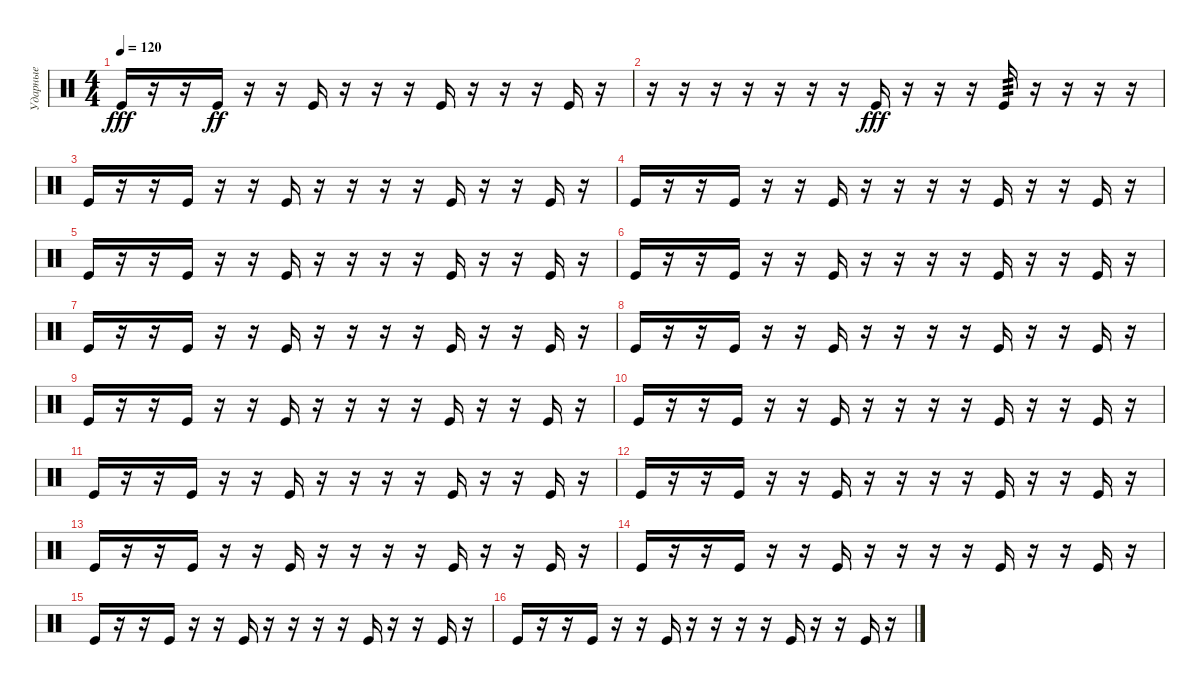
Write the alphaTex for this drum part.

\track ("Ударные" "Ударные") {instrument percussion}
\staff {score}
\articulation defaults
\ts (4 4)
\tempo 120
\clef neutral
\ks c "Kick (hit)".16{dy fff}
r.16 r.16 "Kick (hit)".16{dy ff} r.16 r.16 "Kick (hit)".16 r.16 r.16 r.16 "Kick (hit)".16 r.16 r.16 r.16 "Kick (hit)".16 r.16 |
r.16 r.16 r.16 r.16 r.16 r.16 r.16 "Kick (hit)".16{dy fff} r.16 r.16 r.16 "Kick (hit)".16{tp 3} r.16 r.16 r.16 r.16 |
"Kick (hit)".16 r.16 r.16 "Kick (hit)".16 r.16 r.16 "Kick (hit)".16 r.16 r.16 r.16 r.16 "Kick (hit)".16 r.16 r.16 "Kick (hit)".16 r.16 |
"Kick (hit)".16 r.16 r.16 "Kick (hit)".16 r.16 r.16 "Kick (hit)".16 r.16 r.16 r.16 r.16 "Kick (hit)".16 r.16 r.16 "Kick (hit)".16 r.16 |
"Kick (hit)".16 r.16 r.16 "Kick (hit)".16 r.16 r.16 "Kick (hit)".16 r.16 r.16 r.16 r.16 "Kick (hit)".16 r.16 r.16 "Kick (hit)".16 r.16 |
"Kick (hit)".16 r.16 r.16 "Kick (hit)".16 r.16 r.16 "Kick (hit)".16 r.16 r.16 r.16 r.16 "Kick (hit)".16 r.16 r.16 "Kick (hit)".16 r.16 |
"Kick (hit)".16 r.16 r.16 "Kick (hit)".16 r.16 r.16 "Kick (hit)".16 r.16 r.16 r.16 r.16 "Kick (hit)".16 r.16 r.16 "Kick (hit)".16 r.16 |
"Kick (hit)".16 r.16 r.16 "Kick (hit)".16 r.16 r.16 "Kick (hit)".16 r.16 r.16 r.16 r.16 "Kick (hit)".16 r.16 r.16 "Kick (hit)".16 r.16 |
"Kick (hit)".16 r.16 r.16 "Kick (hit)".16 r.16 r.16 "Kick (hit)".16 r.16 r.16 r.16 r.16 "Kick (hit)".16 r.16 r.16 "Kick (hit)".16 r.16 |
"Kick (hit)".16 r.16 r.16 "Kick (hit)".16 r.16 r.16 "Kick (hit)".16 r.16 r.16 r.16 r.16 "Kick (hit)".16 r.16 r.16 "Kick (hit)".16 r.16 |
"Kick (hit)".16 r.16 r.16 "Kick (hit)".16 r.16 r.16 "Kick (hit)".16 r.16 r.16 r.16 r.16 "Kick (hit)".16 r.16 r.16 "Kick (hit)".16 r.16 |
"Kick (hit)".16 r.16 r.16 "Kick (hit)".16 r.16 r.16 "Kick (hit)".16 r.16 r.16 r.16 r.16 "Kick (hit)".16 r.16 r.16 "Kick (hit)".16 r.16 |
"Kick (hit)".16 r.16 r.16 "Kick (hit)".16 r.16 r.16 "Kick (hit)".16 r.16 r.16 r.16 r.16 "Kick (hit)".16 r.16 r.16 "Kick (hit)".16 r.16 |
"Kick (hit)".16 r.16 r.16 "Kick (hit)".16 r.16 r.16 "Kick (hit)".16 r.16 r.16 r.16 r.16 "Kick (hit)".16 r.16 r.16 "Kick (hit)".16 r.16 |
"Kick (hit)".16 r.16 r.16 "Kick (hit)".16 r.16 r.16 "Kick (hit)".16 r.16 r.16 r.16 r.16 "Kick (hit)".16 r.16 r.16 "Kick (hit)".16 r.16 |
"Kick (hit)".16 r.16 r.16 "Kick (hit)".16 r.16 r.16 "Kick (hit)".16 r.16 r.16 r.16 r.16 "Kick (hit)".16 r.16 r.16 "Kick (hit)".16 r.16
